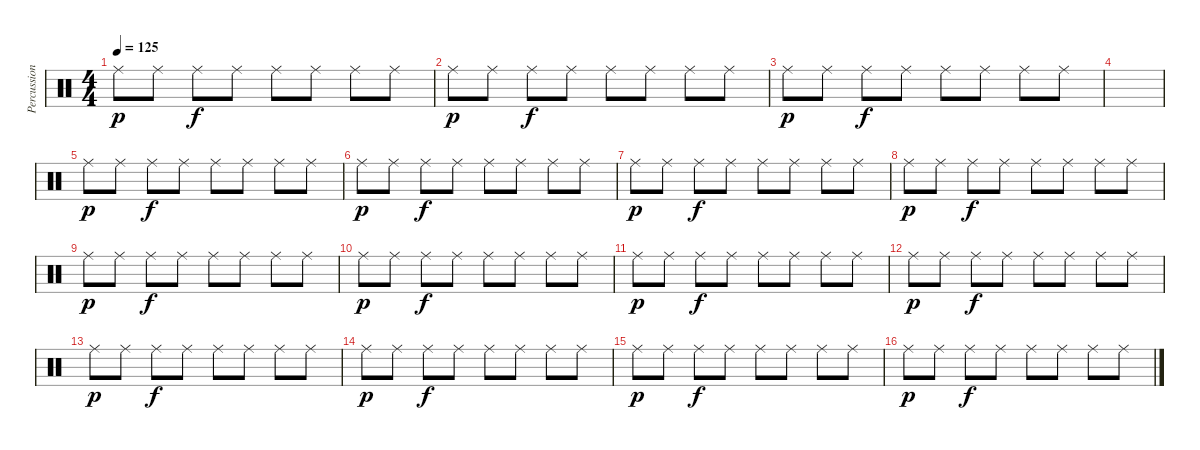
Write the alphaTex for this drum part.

\track ("Percussion" "Percussion") {instrument percussion}
\staff {score}
\articulation defaults
\ts (4 4)
\tempo 125
\clef neutral
\ks c "Ride (middle)".8{dy p} "Ride (middle)".8 "Ride (middle)".8{dy f} "Ride (middle)".8 "Ride (middle)".8 "Ride (middle)".8 "Ride (middle)".8 "Ride (middle)".8
|
"Ride (middle)".8{dy p} "Ride (middle)".8 "Ride (middle)".8{dy f} "Ride (middle)".8 "Ride (middle)".8 "Ride (middle)".8 "Ride (middle)".8 "Ride (middle)".8 |
"Ride (middle)".8{dy p} "Ride (middle)".8 "Ride (middle)".8{dy f} "Ride (middle)".8 "Ride (middle)".8 "Ride (middle)".8 "Ride (middle)".8 "Ride (middle)".8 |
|
"Ride (middle)".8{dy p} "Ride (middle)".8 "Ride (middle)".8{dy f} "Ride (middle)".8 "Ride (middle)".8 "Ride (middle)".8 "Ride (middle)".8 "Ride (middle)".8 |
"Ride (middle)".8{dy p} "Ride (middle)".8 "Ride (middle)".8{dy f} "Ride (middle)".8 "Ride (middle)".8 "Ride (middle)".8 "Ride (middle)".8 "Ride (middle)".8 |
"Ride (middle)".8{dy p} "Ride (middle)".8 "Ride (middle)".8{dy f} "Ride (middle)".8 "Ride (middle)".8 "Ride (middle)".8 "Ride (middle)".8 "Ride (middle)".8 |
"Ride (middle)".8{dy p} "Ride (middle)".8 "Ride (middle)".8{dy f} "Ride (middle)".8 "Ride (middle)".8 "Ride (middle)".8 "Ride (middle)".8 "Ride (middle)".8 |
"Ride (middle)".8{dy p} "Ride (middle)".8 "Ride (middle)".8{dy f} "Ride (middle)".8 "Ride (middle)".8 "Ride (middle)".8 "Ride (middle)".8 "Ride (middle)".8 |
"Ride (middle)".8{dy p} "Ride (middle)".8 "Ride (middle)".8{dy f} "Ride (middle)".8 "Ride (middle)".8 "Ride (middle)".8 "Ride (middle)".8 "Ride (middle)".8 |
"Ride (middle)".8{dy p} "Ride (middle)".8 "Ride (middle)".8{dy f} "Ride (middle)".8 "Ride (middle)".8 "Ride (middle)".8 "Ride (middle)".8 "Ride (middle)".8 |
"Ride (middle)".8{dy p} "Ride (middle)".8 "Ride (middle)".8{dy f} "Ride (middle)".8 "Ride (middle)".8 "Ride (middle)".8 "Ride (middle)".8 "Ride (middle)".8 |
"Ride (middle)".8{dy p} "Ride (middle)".8 "Ride (middle)".8{dy f} "Ride (middle)".8 "Ride (middle)".8 "Ride (middle)".8 "Ride (middle)".8 "Ride (middle)".8 |
"Ride (middle)".8{dy p} "Ride (middle)".8 "Ride (middle)".8{dy f} "Ride (middle)".8 "Ride (middle)".8 "Ride (middle)".8 "Ride (middle)".8 "Ride (middle)".8 |
"Ride (middle)".8{dy p} "Ride (middle)".8 "Ride (middle)".8{dy f} "Ride (middle)".8 "Ride (middle)".8 "Ride (middle)".8 "Ride (middle)".8 "Ride (middle)".8 |
"Ride (middle)".8{dy p} "Ride (middle)".8 "Ride (middle)".8{dy f} "Ride (middle)".8 "Ride (middle)".8 "Ride (middle)".8 "Ride (middle)".8 "Ride (middle)".8
